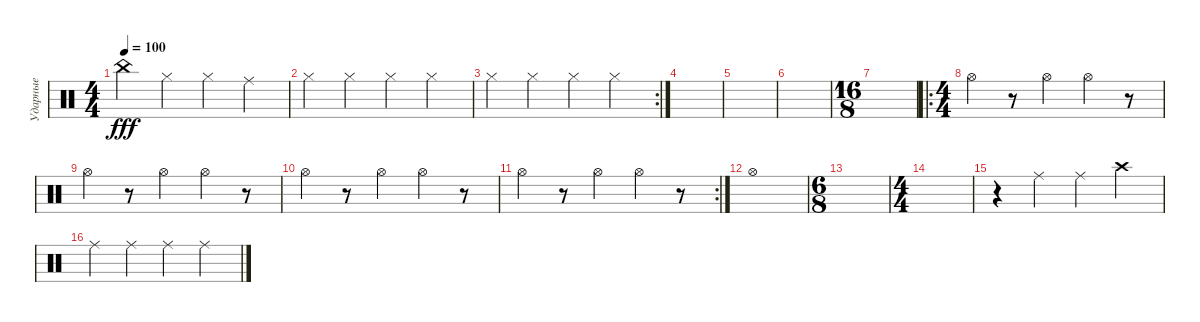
\track ("Ударные" "Ударные") {instrument percussion}
\staff {score}
\articulation defaults
\ts (4 4)
\tempo 100
\clef neutral
\ks c "China (hit)".4{dy fff} "Hi-Hat (closed)".4 "Hi-Hat (closed)".4 "Ride (middle)".4
|
"Hi-Hat (closed)".4 "Hi-Hat (closed)".4 "Hi-Hat (closed)".4 "Hi-Hat (closed)".4 |
\rc 2 "Hi-Hat (closed)".4 "Hi-Hat (closed)".4 "Hi-Hat (closed)".4 "Hi-Hat (closed)".4
|
|
|
|
\ts (16 8)
|
\ro
\ts (4 4)
"Hi-Hat (open)".4 r.8 "Hi-Hat (open)".4 "Hi-Hat (open)".4 r.8 |
"Hi-Hat (open)".4 r.8 "Hi-Hat (open)".4 "Hi-Hat (open)".4 r.8 |
"Hi-Hat (open)".4 r.8 "Hi-Hat (open)".4 "Hi-Hat (open)".4 r.8 |
\rc 2 "Hi-Hat (open)".4
r.8 "Hi-Hat (open)".4 "Hi-Hat (open)".4 r.8 |
"Hi-Hat (open)".1 |
\ts (6 8)
|
\ts (4 4)
|
r.4 "Ride (middle)".4 "Ride (middle)".4 "Crash high (hit)".4 |
"Ride (middle)".4 "Ride (middle)".4 "Ride (middle)".4 "Ride (middle)".4
